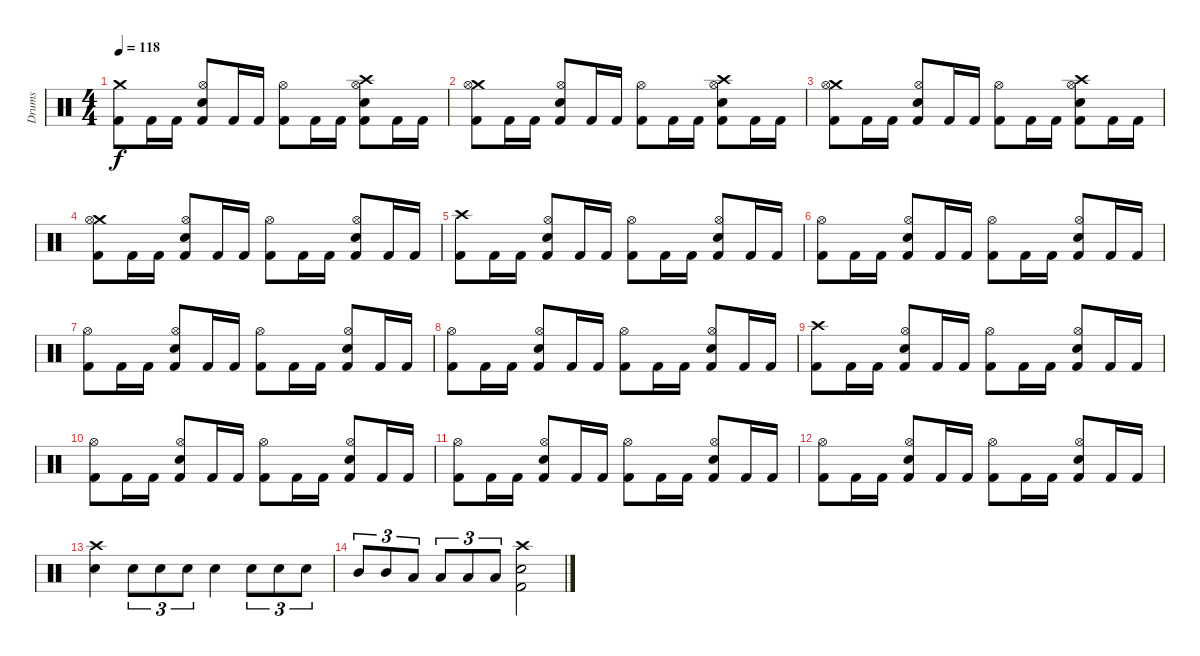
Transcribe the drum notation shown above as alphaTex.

\track ("Drums" "Drums") {instrument percussion}
\staff {score}
\articulation defaults
\ts (4 4)
\tempo 118
\clef neutral
\ks c
("Crash medium (hit)" "Kick (hit) 2").8{dy f} "Kick (hit) 2".16 "Kick (hit) 2".16 ("Hi-Hat (open)" "Snare (hit) 2" "Kick (hit) 2").8 "Kick (hit) 2".16 "Kick (hit) 2".16 ("Hi-Hat (open)" "Kick (hit) 2").8 "Kick (hit) 2".16 "Kick (hit) 2".16 ("Crash high (hit)" "Hi-Hat (open)" "Snare (hit) 2" "Kick (hit) 2").8 "Kick (hit) 2".16 "Kick (hit) 2".16 |
("Crash medium (hit)" "Hi-Hat (open)" "Kick (hit) 2").8 "Kick (hit) 2".16 "Kick (hit) 2".16 ("Hi-Hat (open)" "Snare (hit) 2" "Kick (hit) 2").8 "Kick (hit) 2".16 "Kick (hit) 2".16 ("Hi-Hat (open)" "Kick (hit) 2").8 "Kick (hit) 2".16 "Kick (hit) 2".16 ("Crash high (hit)" "Hi-Hat (open)" "Snare (hit) 2" "Kick (hit) 2").8 "Kick (hit) 2".16 "Kick (hit) 2".16 |
("Crash medium (hit)" "Hi-Hat (open)" "Kick (hit) 2").8 "Kick (hit) 2".16 "Kick (hit) 2".16 ("Hi-Hat (open)" "Snare (hit) 2" "Kick (hit) 2").8 "Kick (hit) 2".16 "Kick (hit) 2".16 ("Hi-Hat (open)" "Kick (hit) 2").8 "Kick (hit) 2".16 "Kick (hit) 2".16 ("Crash high (hit)" "Hi-Hat (open)" "Snare (hit) 2" "Kick (hit) 2").8 "Kick (hit) 2".16 "Kick (hit) 2".16 |
("Crash medium (hit)" "Hi-Hat (open)" "Kick (hit) 2").8 "Kick (hit) 2".16 "Kick (hit) 2".16 ("Hi-Hat (open)" "Snare (hit) 2" "Kick (hit) 2").8 "Kick (hit) 2".16 "Kick (hit) 2".16 ("Hi-Hat (open)" "Kick (hit) 2").8 "Kick (hit) 2".16 "Kick (hit) 2".16 ("Hi-Hat (open)" "Snare (hit) 2" "Kick (hit) 2").8 "Kick (hit) 2".16 "Kick (hit) 2".16 |
("Crash high (hit)" "Kick (hit) 2").8 "Kick (hit) 2".16 "Kick (hit) 2".16 ("Hi-Hat (open)" "Snare (hit) 2" "Kick (hit) 2").8 "Kick (hit) 2".16 "Kick (hit) 2".16 ("Hi-Hat (open)" "Kick (hit) 2").8 "Kick (hit) 2".16 "Kick (hit) 2".16 ("Hi-Hat (open)" "Snare (hit) 2" "Kick (hit) 2").8 "Kick (hit) 2".16 "Kick (hit) 2".16 |
("Hi-Hat (open)" "Kick (hit) 2").8 "Kick (hit) 2".16 "Kick (hit) 2".16 ("Hi-Hat (open)" "Snare (hit) 2" "Kick (hit) 2").8 "Kick (hit) 2".16 "Kick (hit) 2".16 ("Hi-Hat (open)" "Kick (hit) 2").8 "Kick (hit) 2".16 "Kick (hit) 2".16 ("Hi-Hat (open)" "Snare (hit) 2" "Kick (hit) 2").8 "Kick (hit) 2".16 "Kick (hit) 2".16 |
("Hi-Hat (open)" "Kick (hit) 2").8 "Kick (hit) 2".16 "Kick (hit) 2".16 ("Hi-Hat (open)" "Snare (hit) 2" "Kick (hit) 2").8 "Kick (hit) 2".16 "Kick (hit) 2".16 ("Hi-Hat (open)" "Kick (hit) 2").8 "Kick (hit) 2".16 "Kick (hit) 2".16 ("Hi-Hat (open)" "Snare (hit) 2" "Kick (hit) 2").8 "Kick (hit) 2".16 "Kick (hit) 2".16 |
("Hi-Hat (open)" "Kick (hit) 2").8 "Kick (hit) 2".16 "Kick (hit) 2".16 ("Hi-Hat (open)" "Snare (hit) 2" "Kick (hit) 2").8 "Kick (hit) 2".16 "Kick (hit) 2".16 ("Hi-Hat (open)" "Kick (hit) 2").8 "Kick (hit) 2".16 "Kick (hit) 2".16 ("Hi-Hat (open)" "Snare (hit) 2" "Kick (hit) 2").8 "Kick (hit) 2".16 "Kick (hit) 2".16 |
("Crash high (hit)" "Kick (hit) 2").8 "Kick (hit) 2".16 "Kick (hit) 2".16 ("Hi-Hat (open)" "Snare (hit) 2" "Kick (hit) 2").8 "Kick (hit) 2".16 "Kick (hit) 2".16 ("Hi-Hat (open)" "Kick (hit) 2").8 "Kick (hit) 2".16 "Kick (hit) 2".16 ("Hi-Hat (open)" "Snare (hit) 2" "Kick (hit) 2").8 "Kick (hit) 2".16 "Kick (hit) 2".16 |
("Hi-Hat (open)" "Kick (hit) 2").8 "Kick (hit) 2".16 "Kick (hit) 2".16 ("Hi-Hat (open)" "Snare (hit) 2" "Kick (hit) 2").8 "Kick (hit) 2".16 "Kick (hit) 2".16 ("Hi-Hat (open)" "Kick (hit) 2").8 "Kick (hit) 2".16 "Kick (hit) 2".16 ("Hi-Hat (open)" "Snare (hit) 2" "Kick (hit) 2").8 "Kick (hit) 2".16 "Kick (hit) 2".16 |
("Hi-Hat (open)" "Kick (hit) 2").8 "Kick (hit) 2".16 "Kick (hit) 2".16 ("Hi-Hat (open)" "Snare (hit) 2" "Kick (hit) 2").8 "Kick (hit) 2".16 "Kick (hit) 2".16 ("Hi-Hat (open)" "Kick (hit) 2").8 "Kick (hit) 2".16 "Kick (hit) 2".16 ("Hi-Hat (open)" "Snare (hit) 2" "Kick (hit) 2").8 "Kick (hit) 2".16 "Kick (hit) 2".16 |
("Hi-Hat (open)" "Kick (hit) 2").8 "Kick (hit) 2".16 "Kick (hit) 2".16 ("Hi-Hat (open)" "Snare (hit) 2" "Kick (hit) 2").8 "Kick (hit) 2".16 "Kick (hit) 2".16 ("Hi-Hat (open)" "Kick (hit) 2").8 "Kick (hit) 2".16 "Kick (hit) 2".16 ("Hi-Hat (open)" "Snare (hit) 2" "Kick (hit) 2").8 "Kick (hit) 2".16 "Kick (hit) 2".16 |
("Crash high (hit)" "Snare (hit) 2").4 "Snare (hit) 2".8{tu (3 2)} "Snare (hit) 2".8{tu (3 2)} "Snare (hit) 2".8{tu (3 2)} "Snare (hit) 2".4 "Snare (hit) 2".8{tu (3 2)} "Snare (hit) 2".8{tu (3 2)} "Snare (hit) 2".8{tu (3 2)} |
"Mid Tom (hit)".8{tu (3 2)} "Mid Tom (hit)".8{tu (3 2)} "Low Tom (hit)".8{tu (3 2)} "Low Tom (hit)".8{tu (3 2)} "Low Tom (hit)".8{tu (3 2)} "Low Tom (hit)".8{tu (3 2)} ("Crash high (hit)" "Snare (hit) 2" "Kick (hit) 2").2
